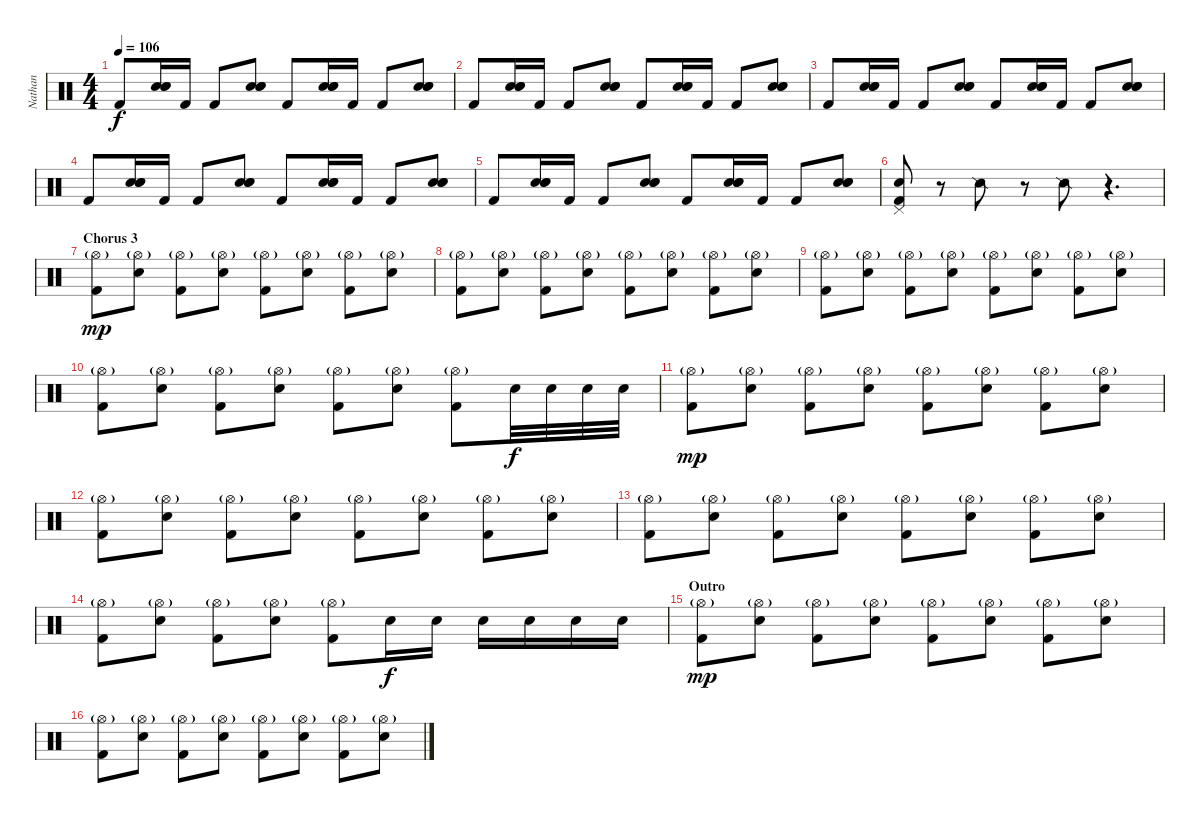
\track ("Nathan" "Nathan") {instrument percussion}
\staff {score}
\articulation defaults
\ts (4 4)
\tempo 106
\clef neutral
\ks c "Kick (hit) 2".8{dy f}
("Hand Clap (hit)" "Hand Clap (hit)" "Hand Clap (hit)").16 "Kick (hit) 2".16 "Kick (hit) 2".8 ("Hand Clap (hit)" "Hand Clap (hit)" "Hand Clap (hit)").8 "Kick (hit) 2".8 ("Hand Clap (hit)" "Hand Clap (hit)" "Hand Clap (hit)").16 "Kick (hit) 2".16 "Kick (hit) 2".8 ("Hand Clap (hit)" "Hand Clap (hit)" "Hand Clap (hit)").8 |
"Kick (hit) 2".8 ("Hand Clap (hit)" "Hand Clap (hit)" "Hand Clap (hit)").16 "Kick (hit) 2".16 "Kick (hit) 2".8 ("Hand Clap (hit)" "Hand Clap (hit)" "Hand Clap (hit)").8 "Kick (hit) 2".8 ("Hand Clap (hit)" "Hand Clap (hit)" "Hand Clap (hit)").16 "Kick (hit) 2".16 "Kick (hit) 2".8 ("Hand Clap (hit)" "Hand Clap (hit)" "Hand Clap (hit)").8 |
"Kick (hit) 2".8 ("Hand Clap (hit)" "Hand Clap (hit)" "Hand Clap (hit)").16 "Kick (hit) 2".16 "Kick (hit) 2".8 ("Hand Clap (hit)" "Hand Clap (hit)" "Hand Clap (hit)").8 "Kick (hit) 2".8 ("Hand Clap (hit)" "Hand Clap (hit)" "Hand Clap (hit)").16 "Kick (hit) 2".16 "Kick (hit) 2".8 ("Hand Clap (hit)" "Hand Clap (hit)" "Hand Clap (hit)").8 |
"Kick (hit) 2".8 ("Hand Clap (hit)" "Hand Clap (hit)" "Hand Clap (hit)").16 "Kick (hit) 2".16 "Kick (hit) 2".8 ("Hand Clap (hit)" "Hand Clap (hit)" "Hand Clap (hit)").8 "Kick (hit) 2".8 ("Hand Clap (hit)" "Hand Clap (hit)" "Hand Clap (hit)").16 "Kick (hit) 2".16 "Kick (hit) 2".8 ("Hand Clap (hit)" "Hand Clap (hit)" "Hand Clap (hit)").8 |
"Kick (hit) 2".8 ("Hand Clap (hit)" "Hand Clap (hit)" "Hand Clap (hit)").16 "Kick (hit) 2".16 "Kick (hit) 2".8 ("Hand Clap (hit)" "Hand Clap (hit)" "Hand Clap (hit)").8 "Kick (hit) 2".8 ("Hand Clap (hit)" "Hand Clap (hit)" "Hand Clap (hit)").16 "Kick (hit) 2".16 "Kick (hit) 2".8 ("Hand Clap (hit)" "Hand Clap (hit)" "Hand Clap (hit)").8 |
("Pedal Hi-Hat (hit)" "Snare (hit) 2" "Kick (hit) 2").8 r.8 "Snare (side stick) 2".8 r.8 "Snare (side stick) 2".8 r.4{d} |
\section ("" "Chorus 3")
("Hi-Hat (open)"{g} "Kick (hit) 2").8{dy mp} ("Hi-Hat (open)"{g} "Snare (hit) 2").8 ("Hi-Hat (open)"{g} "Kick (hit) 2").8 ("Hi-Hat (open)"{g} "Snare (hit) 2").8 ("Hi-Hat (open)"{g} "Kick (hit) 2").8 ("Hi-Hat (open)"{g} "Snare (hit) 2").8 ("Hi-Hat (open)"{g} "Kick (hit) 2").8 ("Hi-Hat (open)"{g} "Snare (hit) 2").8 |
("Hi-Hat (open)"{g} "Kick (hit) 2").8 ("Hi-Hat (open)"{g} "Snare (hit) 2").8 ("Hi-Hat (open)"{g} "Kick (hit) 2").8 ("Hi-Hat (open)"{g} "Snare (hit) 2").8 ("Hi-Hat (open)"{g} "Kick (hit) 2").8 ("Hi-Hat (open)"{g} "Snare (hit) 2").8 ("Hi-Hat (open)"{g} "Kick (hit) 2").8 ("Hi-Hat (open)"{g} "Snare (hit) 2").8 |
("Hi-Hat (open)"{g} "Kick (hit) 2").8 ("Hi-Hat (open)"{g} "Snare (hit) 2").8 ("Hi-Hat (open)"{g} "Kick (hit) 2").8 ("Hi-Hat (open)"{g} "Snare (hit) 2").8 ("Hi-Hat (open)"{g} "Kick (hit) 2").8 ("Hi-Hat (open)"{g} "Snare (hit) 2").8 ("Hi-Hat (open)"{g} "Kick (hit) 2").8 ("Hi-Hat (open)"{g} "Snare (hit) 2").8 |
("Hi-Hat (open)"{g} "Kick (hit) 2").8 ("Hi-Hat (open)"{g} "Snare (hit) 2").8 ("Hi-Hat (open)"{g} "Kick (hit) 2").8 ("Hi-Hat (open)"{g} "Snare (hit) 2").8 ("Hi-Hat (open)"{g} "Kick (hit) 2").8 ("Hi-Hat (open)"{g} "Snare (hit) 2").8 ("Hi-Hat (open)"{g} "Kick (hit) 2").8 "Snare (hit) 2".32{dy f} "Snare (hit) 2".32 "Snare (hit) 2".32 "Snare (hit) 2".32 |
("Hi-Hat (open)"{g} "Kick (hit) 2").8{dy mp} ("Hi-Hat (open)"{g} "Snare (hit) 2").8 ("Hi-Hat (open)"{g} "Kick (hit) 2").8 ("Hi-Hat (open)"{g} "Snare (hit) 2").8 ("Hi-Hat (open)"{g} "Kick (hit) 2").8 ("Hi-Hat (open)"{g} "Snare (hit) 2").8 ("Hi-Hat (open)"{g} "Kick (hit) 2").8 ("Hi-Hat (open)"{g} "Snare (hit) 2").8 |
("Hi-Hat (open)"{g} "Kick (hit) 2").8 ("Hi-Hat (open)"{g} "Snare (hit) 2").8 ("Hi-Hat (open)"{g} "Kick (hit) 2").8 ("Hi-Hat (open)"{g} "Snare (hit) 2").8 ("Hi-Hat (open)"{g} "Kick (hit) 2").8 ("Hi-Hat (open)"{g} "Snare (hit) 2").8 ("Hi-Hat (open)"{g} "Kick (hit) 2").8 ("Hi-Hat (open)"{g} "Snare (hit) 2").8 |
("Hi-Hat (open)"{g} "Kick (hit) 2").8 ("Hi-Hat (open)"{g} "Snare (hit) 2").8 ("Hi-Hat (open)"{g} "Kick (hit) 2").8 ("Hi-Hat (open)"{g} "Snare (hit) 2").8 ("Hi-Hat (open)"{g} "Kick (hit) 2").8 ("Hi-Hat (open)"{g} "Snare (hit) 2").8 ("Hi-Hat (open)"{g} "Kick (hit) 2").8 ("Hi-Hat (open)"{g} "Snare (hit) 2").8 |
("Hi-Hat (open)"{g} "Kick (hit) 2").8 ("Hi-Hat (open)"{g} "Snare (hit) 2").8 ("Hi-Hat (open)"{g} "Kick (hit) 2").8 ("Hi-Hat (open)"{g} "Snare (hit) 2").8 ("Hi-Hat (open)"{g} "Kick (hit) 2").8 "Snare (hit) 2".16{dy f} "Snare (hit) 2".16 "Snare (hit) 2".16 "Snare (hit) 2".16 "Snare (hit) 2".16 "Snare (hit) 2".16 |
\section ("" "Outro")
("Hi-Hat (open)"{g} "Kick (hit) 2").8{dy mp} ("Hi-Hat (open)"{g} "Snare (hit) 2").8 ("Hi-Hat (open)"{g} "Kick (hit) 2").8 ("Hi-Hat (open)"{g} "Snare (hit) 2").8 ("Hi-Hat (open)"{g} "Kick (hit) 2").8 ("Hi-Hat (open)"{g} "Snare (hit) 2").8 ("Hi-Hat (open)"{g} "Kick (hit) 2").8 ("Hi-Hat (open)"{g} "Snare (hit) 2").8 |
("Hi-Hat (open)"{g} "Kick (hit) 2").8 ("Hi-Hat (open)"{g} "Snare (hit) 2").8 ("Hi-Hat (open)"{g} "Kick (hit) 2").8 ("Hi-Hat (open)"{g} "Snare (hit) 2").8 ("Hi-Hat (open)"{g} "Kick (hit) 2").8 ("Hi-Hat (open)"{g} "Snare (hit) 2").8 ("Hi-Hat (open)"{g} "Kick (hit) 2").8 ("Hi-Hat (open)"{g} "Snare (hit) 2").8
